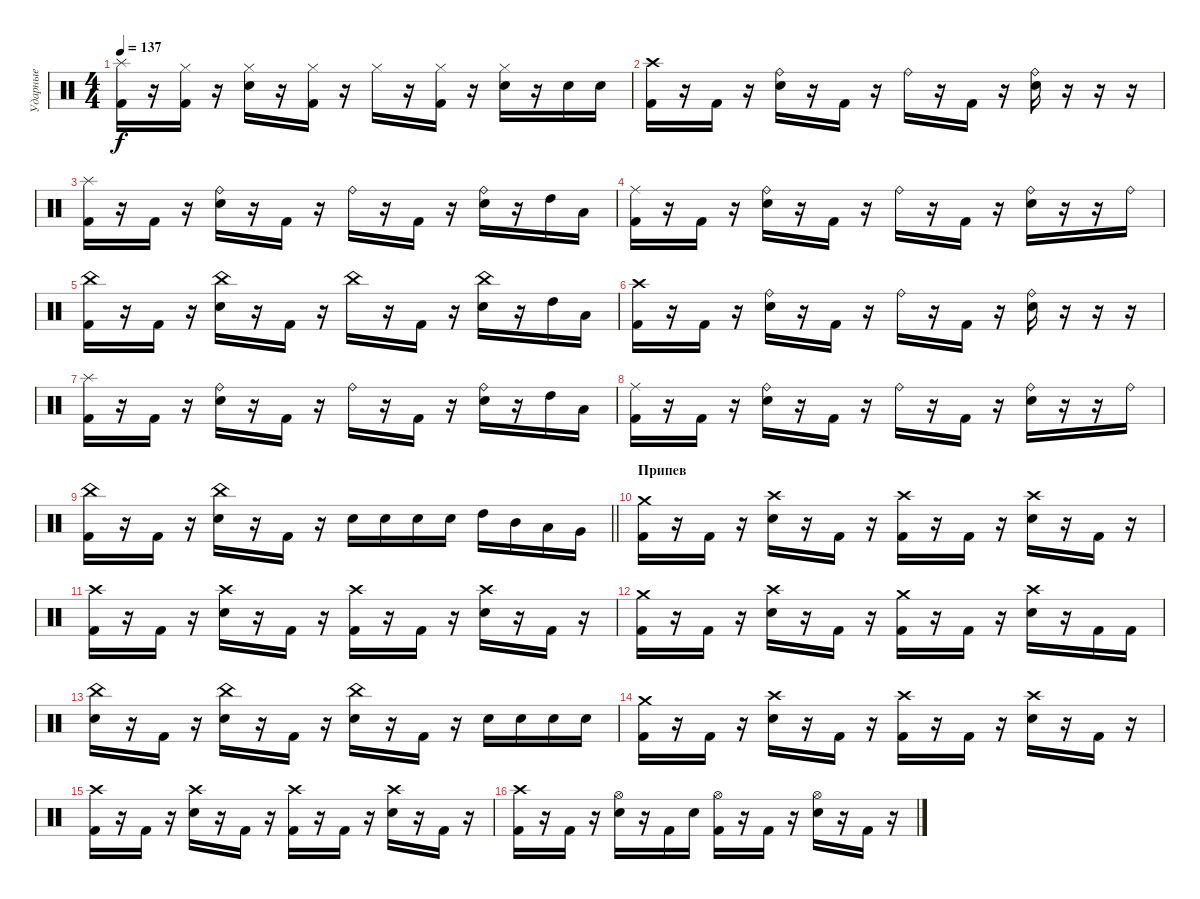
\track ("Ударные" "Ударные") {instrument percussion}
\staff {score}
\articulation defaults
\ts (4 4)
\tempo 137
\clef neutral
\ks c
("Kick (hit) 2" "Splash (hit)").16{dy f} r.16 ("Kick (hit) 2" "Hi-Hat (closed)").16 r.16 ("Snare (hit) 2" "Hi-Hat (closed)").16 r.16 ("Kick (hit) 2" "Hi-Hat (closed)").16 r.16 "Hi-Hat (closed)".16 r.16 ("Kick (hit) 2" "Hi-Hat (closed)").16 r.16 ("Snare (hit) 2" "Hi-Hat (closed)").16 r.16 "Snare (hit) 2".16 "Snare (hit) 2".16 |
("Kick (hit) 2" "Crash high (hit)").16 r.16 "Kick (hit) 2".16 r.16 ("Snare (hit) 2" "Ride (bell)").16 r.16 "Kick (hit) 2".16 r.16 "Ride (bell)".16 r.16 "Kick (hit) 2".16 r.16 ("Snare (hit) 2" "Ride (bell)").16 r.16 r.16 r.16 |
("Kick (hit) 2" "Splash (hit)").16 r.16 "Kick (hit) 2".16 r.16 ("Snare (hit) 2" "Ride (bell)").16 r.16 "Kick (hit) 2".16 r.16 "Ride (bell)".16 r.16 "Kick (hit) 2".16 r.16 ("Snare (hit) 2" "Ride (bell)").16 r.16 "High Tom (hit)".16 "Low Tom (hit)".16 |
("Kick (hit) 2" "Ride (middle)").16 r.16 "Kick (hit) 2".16 r.16 ("Snare (hit) 2" "Ride (bell)").16 r.16 "Kick (hit) 2".16 r.16 "Ride (bell)".16 r.16 "Kick (hit) 2".16 r.16 ("Snare (hit) 2" "Ride (bell)").16 r.16 r.16 "Ride (bell)".16 |
("Kick (hit) 2" "China (hit)").16 r.16 "Kick (hit) 2".16 r.16 ("Snare (hit) 2" "China (hit)").16 r.16 "Kick (hit) 2".16 r.16 "China (hit)".16 r.16 "Kick (hit) 2".16 r.16 ("Snare (hit) 2" "China (hit)").16 r.16 "High Tom (hit)".16 "Low Tom (hit)".16 |
("Kick (hit) 2" "Crash high (hit)").16 r.16 "Kick (hit) 2".16 r.16 ("Snare (hit) 2" "Ride (bell)").16 r.16 "Kick (hit) 2".16 r.16 "Ride (bell)".16 r.16 "Kick (hit) 2".16 r.16 ("Snare (hit) 2" "Ride (bell)").16 r.16 r.16 r.16 |
("Kick (hit) 2" "Splash (hit)").16 r.16 "Kick (hit) 2".16 r.16 ("Snare (hit) 2" "Ride (bell)").16 r.16 "Kick (hit) 2".16 r.16 "Ride (bell)".16 r.16 "Kick (hit) 2".16 r.16 ("Snare (hit) 2" "Ride (bell)").16 r.16 "High Tom (hit)".16 "Low Tom (hit)".16 |
("Kick (hit) 2" "Ride (middle)").16 r.16 "Kick (hit) 2".16 r.16 ("Snare (hit) 2" "Ride (bell)").16 r.16 "Kick (hit) 2".16 r.16 "Ride (bell)".16 r.16 "Kick (hit) 2".16 r.16 ("Snare (hit) 2" "Ride (bell)").16 r.16 r.16 "Ride (bell)".16 |
\barLineRight lightlight
("Kick (hit) 2" "China (hit)").16 r.16 "Kick (hit) 2".16 r.16 ("Snare (hit) 2" "China (hit)").16 r.16 "Kick (hit) 2".16 r.16 "Snare (hit) 2".16 "Snare (hit) 2".16 "Snare (hit) 2".16 "Snare (hit) 2".16 "High Tom (hit)".16 "Mid Tom (hit)".16 "Low Tom (hit)".16 "Very Low Tom (hit)".16 |
\section ("" "Припев")
("Kick (hit) 2" "Crash medium (hit)").16 r.16 "Kick (hit) 2".16 r.16 ("Snare (hit) 2" "Crash high (hit)").16 r.16 "Kick (hit) 2".16 r.16 ("Kick (hit) 2" "Crash high (hit)").16 r.16 "Kick (hit) 2".16 r.16 ("Snare (hit) 2" "Crash high (hit)").16 r.16 "Kick (hit) 2".16 r.16 |
("Kick (hit) 2" "Crash high (hit)").16 r.16 "Kick (hit) 2".16 r.16 ("Snare (hit) 2" "Crash high (hit)").16 r.16 "Kick (hit) 2".16 r.16 ("Kick (hit) 2" "Crash high (hit)").16 r.16 "Kick (hit) 2".16 r.16 ("Snare (hit) 2" "Crash high (hit)").16 r.16 "Kick (hit) 2".16 r.16 |
("Kick (hit) 2" "Crash medium (hit)").16 r.16 "Kick (hit) 2".16 r.16 ("Snare (hit) 2" "Crash high (hit)").16 r.16 "Kick (hit) 2".16 r.16 ("Kick (hit) 2" "Crash medium (hit)").16 r.16 "Kick (hit) 2".16 r.16 ("Snare (hit) 2" "Crash high (hit)").16 r.16 "Kick (hit) 2".16 "Kick (hit) 2".16 |
("Snare (hit) 2" "China (hit)").16 r.16 "Kick (hit) 2".16 r.16 ("Snare (hit) 2" "China (hit)").16 r.16 "Kick (hit) 2".16 r.16 ("Snare (hit) 2" "China (hit)").16 r.16 "Kick (hit) 2".16 r.16 "Snare (hit) 2".16 "Snare (hit) 2".16 "Snare (hit) 2".16 "Snare (hit) 2".16 |
("Kick (hit) 2" "Crash medium (hit)").16 r.16 "Kick (hit) 2".16 r.16 ("Snare (hit) 2" "Crash high (hit)").16 r.16 "Kick (hit) 2".16 r.16 ("Kick (hit) 2" "Crash high (hit)").16 r.16 "Kick (hit) 2".16 r.16 ("Snare (hit) 2" "Crash high (hit)").16 r.16 "Kick (hit) 2".16 r.16 |
("Kick (hit) 2" "Crash high (hit)").16 r.16 "Kick (hit) 2".16 r.16 ("Snare (hit) 2" "Crash high (hit)").16 r.16 "Kick (hit) 2".16 r.16 ("Kick (hit) 2" "Crash high (hit)").16 r.16 "Kick (hit) 2".16 r.16 ("Snare (hit) 2" "Crash high (hit)").16 r.16 "Kick (hit) 2".16 r.16 |
("Kick (hit) 2" "Crash high (hit)").16 r.16 "Kick (hit) 2".16 r.16 ("Snare (hit) 2" "Hi-Hat (open)").16 r.16 "Kick (hit) 2".16 "Snare (hit) 2".16 ("Kick (hit) 2" "Hi-Hat (open)").16 r.16 "Kick (hit) 2".16 r.16 ("Snare (hit) 2" "Hi-Hat (open)").16 r.16 "Kick (hit) 2".16 r.16
